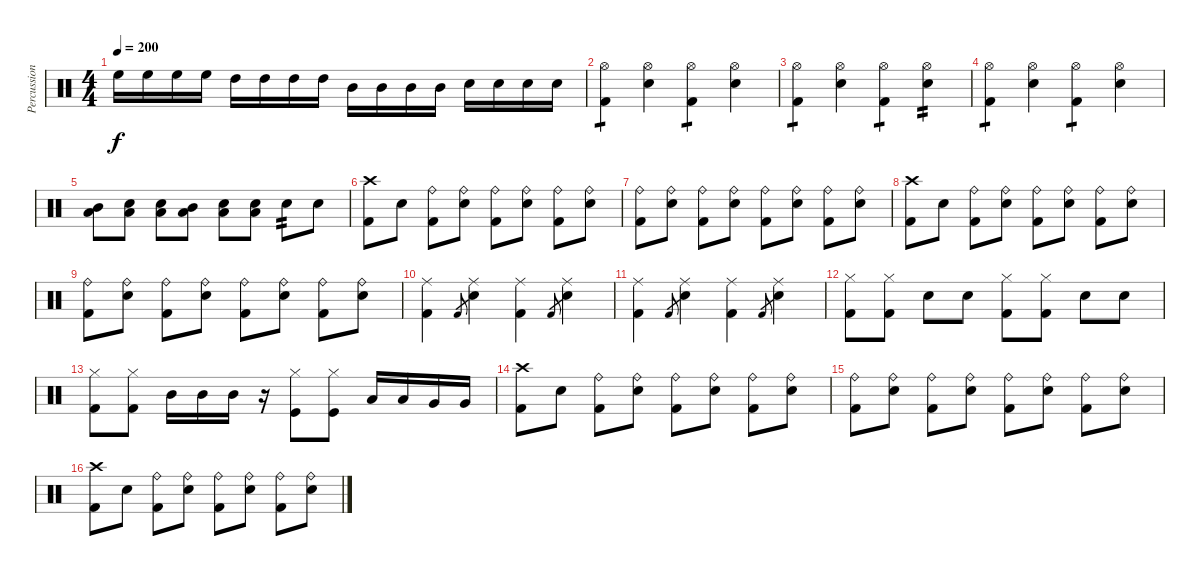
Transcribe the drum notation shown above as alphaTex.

\track ("Percussion" "Percussion") {instrument percussion}
\staff {score}
\articulation defaults
\ts (4 4)
\tempo 200
\clef neutral
\ks c "High Floor Tom (hit)".16{dy f} "High Floor Tom (hit)".16 "High Floor Tom (hit)".16 "High Floor Tom (hit)".16 "High Tom (hit)".16 "High Tom (hit)".16 "High Tom (hit)".16 "High Tom (hit)".16 "Mid Tom (hit)".16 "Mid Tom (hit)".16 "Mid Tom (hit)".16 "Mid Tom (hit)".16 "Electric Snare (hit)".16 "Electric Snare (hit)".16 "Electric Snare (hit)".16 "Electric Snare (hit)".16
|
("Hi-Hat (open)" "Kick (hit) 2").4{tp 1} ("Hi-Hat (open)" "Electric Snare (hit)").4 ("Hi-Hat (open)" "Kick (hit) 2").4{tp 1} ("Hi-Hat (open)" "Electric Snare (hit)").4 |
("Hi-Hat (open)" "Kick (hit) 2").4{tp 1} ("Hi-Hat (open)" "Electric Snare (hit)").4 ("Hi-Hat (open)" "Kick (hit) 2").4{tp 1} ("Hi-Hat (open)" "Electric Snare (hit)").4{tp 2} |
("Hi-Hat (open)" "Kick (hit) 2").4{tp 1} ("Hi-Hat (open)" "Electric Snare (hit)").4 ("Hi-Hat (open)" "Kick (hit) 2").4{tp 1} ("Hi-Hat (open)" "Electric Snare (hit)").4 |
("Low Tom (hit)" "Mid Tom (hit)").8 ("Low Floor Tom (hit)" "Electric Snare (hit)").8 ("Low Floor Tom (hit)" "Electric Snare (hit)").8 ("Low Tom (hit)" "Mid Tom (hit)").8 ("Low Floor Tom (hit)" "Electric Snare (hit)").8 ("Low Floor Tom (hit)" "Electric Snare (hit)").8 "Electric Snare (hit)".8{tp 2} "Electric Snare (hit)".8 |
("Crash high (hit)" "Kick (hit) 2").8 "Electric Snare (hit)".8 ("Ride (bell)" "Kick (hit) 2").8 ("Ride (bell)" "Electric Snare (hit)").8 ("Ride (bell)" "Kick (hit) 2").8 ("Ride (bell)" "Electric Snare (hit)").8 ("Ride (bell)" "Kick (hit) 2").8 ("Ride (bell)" "Electric Snare (hit)").8 |
("Ride (bell)" "Kick (hit) 2").8 ("Ride (bell)" "Electric Snare (hit)").8 ("Ride (bell)" "Kick (hit) 2").8 ("Ride (bell)" "Electric Snare (hit)").8 ("Ride (bell)" "Kick (hit) 2").8 ("Ride (bell)" "Electric Snare (hit)").8 ("Ride (bell)" "Kick (hit) 2").8 ("Ride (bell)" "Electric Snare (hit)").8 |
("Crash high (hit)" "Kick (hit) 2").8 "Electric Snare (hit)".8 ("Ride (bell)" "Kick (hit) 2").8 ("Ride (bell)" "Electric Snare (hit)").8 ("Ride (bell)" "Kick (hit) 2").8 ("Ride (bell)" "Electric Snare (hit)").8 ("Ride (bell)" "Kick (hit) 2").8 ("Ride (bell)" "Electric Snare (hit)").8 |
("Ride (bell)" "Kick (hit) 2").8 ("Ride (bell)" "Electric Snare (hit)").8 ("Ride (bell)" "Kick (hit) 2").8 ("Ride (bell)" "Electric Snare (hit)").8 ("Ride (bell)" "Kick (hit) 2").8 ("Ride (bell)" "Electric Snare (hit)").8 ("Ride (bell)" "Kick (hit) 2").8 ("Ride (bell)" "Electric Snare (hit)").8 |
("Ride (middle)" "Kick (hit) 2").4 "Kick (hit) 2".8{gr} ("Ride (middle)" "Electric Snare (hit)").4 ("Ride (middle)" "Kick (hit) 2").4 "Kick (hit) 2".8{gr} ("Ride (middle)" "Electric Snare (hit)").4 |
("Ride (middle)" "Kick (hit) 2").4 "Kick (hit) 2".8{gr} ("Ride (middle)" "Electric Snare (hit)").4 ("Ride (middle)" "Kick (hit) 2").4 "Kick (hit) 2".8{gr} ("Ride (middle)" "Electric Snare (hit)").4 |
("Hi-Hat (closed)" "Kick (hit) 2").8 ("Hi-Hat (closed)" "Kick (hit) 2").8 "Electric Snare (hit)".8 "Electric Snare (hit)".8 ("Hi-Hat (closed)" "Kick (hit) 2").8 ("Hi-Hat (closed)" "Kick (hit) 2").8 "Electric Snare (hit)".8 "Electric Snare (hit)".8 |
("Hi-Hat (closed)" "Kick (hit) 2").8 ("Hi-Hat (closed)" "Kick (hit) 2").8 "Mid Tom (hit)".16 "Mid Tom (hit)".16 "Mid Tom (hit)".16 r.16 ("Hi-Hat (closed)" "Kick (hit)").8 ("Hi-Hat (closed)" "Kick (hit)").8 "Low Tom (hit)".16 "Low Tom (hit)".16 "Very Low Tom (hit)".16 "Very Low Tom (hit)".16 |
("Crash high (hit)" "Kick (hit) 2").8 "Electric Snare (hit)".8 ("Ride (bell)" "Kick (hit) 2").8 ("Ride (bell)" "Electric Snare (hit)").8 ("Ride (bell)" "Kick (hit) 2").8 ("Ride (bell)" "Electric Snare (hit)").8 ("Ride (bell)" "Kick (hit) 2").8 ("Ride (bell)" "Electric Snare (hit)").8 |
("Ride (bell)" "Kick (hit) 2").8 ("Ride (bell)" "Electric Snare (hit)").8 ("Ride (bell)" "Kick (hit) 2").8 ("Ride (bell)" "Electric Snare (hit)").8 ("Ride (bell)" "Kick (hit) 2").8 ("Ride (bell)" "Electric Snare (hit)").8 ("Ride (bell)" "Kick (hit) 2").8 ("Ride (bell)" "Electric Snare (hit)").8 |
("Crash high (hit)" "Kick (hit) 2").8 "Electric Snare (hit)".8 ("Ride (bell)" "Kick (hit) 2").8 ("Ride (bell)" "Electric Snare (hit)").8 ("Ride (bell)" "Kick (hit) 2").8 ("Ride (bell)" "Electric Snare (hit)").8 ("Ride (bell)" "Kick (hit) 2").8 ("Ride (bell)" "Electric Snare (hit)").8
